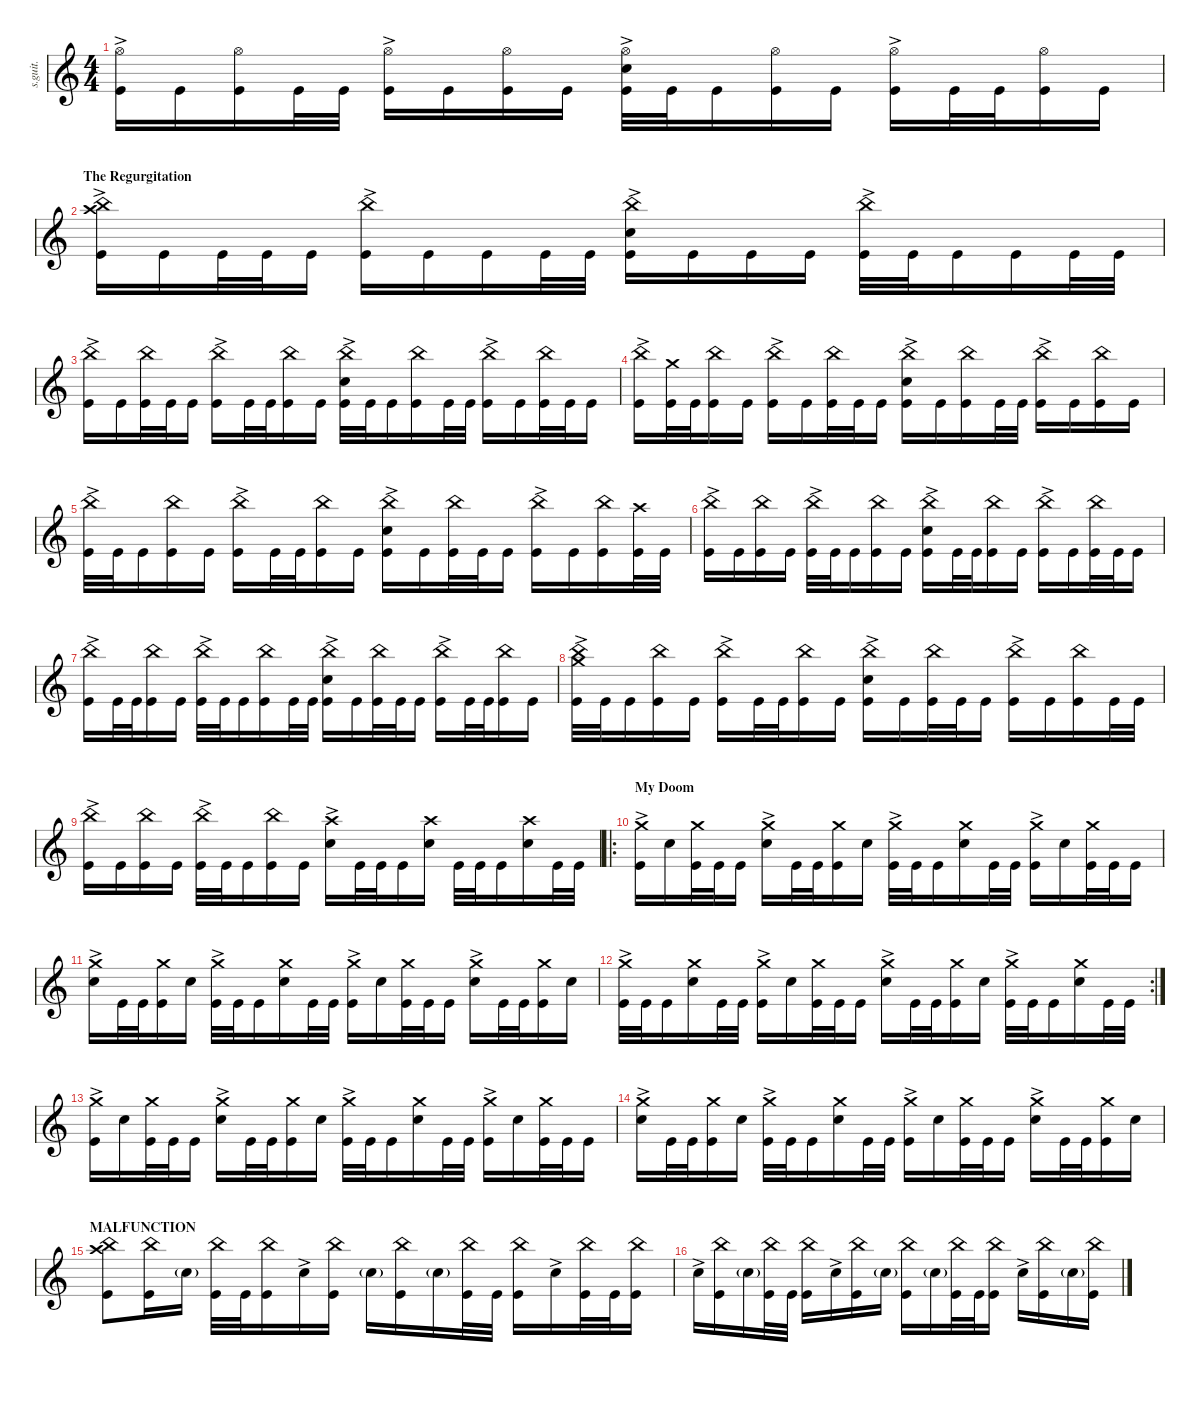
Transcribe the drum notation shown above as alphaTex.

\defaultSystemsLayout 4
\hideDynamics
\bracketExtendMode nobrackets
\track ("Tomas Haake (Drums)" "s.guit.") {instrument percussion}
\staff {score}
\articulation defaults
\ts (4 4)
\tempo (115 hide)
\clef g2
\ks c
("Hi-Hat (open)"{ac} "Kick (hit)").16{lyrics (0 "") lyrics (1 "") lyrics (2 "") lyrics (3 "") lyrics (4 "") dy f} "Kick (hit)".16{lyrics (0 "") lyrics (1 "") lyrics (2 "") lyrics (3 "") lyrics (4 "")} ("Hi-Hat (open)" "Kick (hit)").16{lyrics (0 "") lyrics (1 "") lyrics (2 "") lyrics (3 "") lyrics (4 "") dy mp} "Kick (hit)".32{lyrics (0 "") lyrics (1 "") lyrics (2 "") lyrics (3 "") lyrics (4 "") dy f} "Kick (hit)".32{lyrics (0 "") lyrics (1 "") lyrics (2 "") lyrics (3 "") lyrics (4 "") dy mf} ("Hi-Hat (open)"{ac} "Kick (hit)").16{lyrics (0 "") lyrics (1 "") lyrics (2 "") lyrics (3 "") lyrics (4 "") dy f} "Kick (hit)".16{lyrics (0 "") lyrics (1 "") lyrics (2 "") lyrics (3 "") lyrics (4 "")} ("Hi-Hat (open)" "Kick (hit)").16{lyrics (0 "") lyrics (1 "") lyrics (2 "") lyrics (3 "") lyrics (4 "") dy mp} "Kick (hit)".16{lyrics (0 "") lyrics (1 "") lyrics (2 "") lyrics (3 "") lyrics (4 "") dy f} ("Hi-Hat (open)"{ac} "Snare (hit) 2" "Kick (hit)").32{lyrics (0 "") lyrics (1 "") lyrics (2 "") lyrics (3 "") lyrics (4 "")} "Kick (hit)".32{lyrics (0 "") lyrics (1 "") lyrics (2 "") lyrics (3 "") lyrics (4 "") dy mf} "Kick (hit)".16{lyrics (0 "") lyrics (1 "") lyrics (2 "") lyrics (3 "") lyrics (4 "") dy f} ("Hi-Hat (open)" "Kick (hit)").16{lyrics (0 "") lyrics (1 "") lyrics (2 "") lyrics (3 "") lyrics (4 "") dy mp} "Kick (hit)".16{lyrics (0 "") lyrics (1 "") lyrics (2 "") lyrics (3 "") lyrics (4 "") dy f} ("Hi-Hat (open)"{ac} "Kick (hit)").16{lyrics (0 "") lyrics (1 "") lyrics (2 "") lyrics (3 "") lyrics (4 "")} "Kick (hit)".32{lyrics (0 "") lyrics (1 "") lyrics (2 "") lyrics (3 "") lyrics (4 "")} "Kick (hit)".32{lyrics (0 "") lyrics (1 "") lyrics (2 "") lyrics (3 "") lyrics (4 "") dy mf} ("Hi-Hat (open)" "Kick (hit)").16{lyrics (0 "") lyrics (1 "") lyrics (2 "") lyrics (3 "") lyrics (4 "") dy mp} "Kick (hit)".16{lyrics (0 "") lyrics (1 "") lyrics (2 "") lyrics (3 "") lyrics (4 "") dy f} |
\section ("" "The Regurgitation")
("China (hit)"{ac} "Crash high (hit)" "Kick (hit)").16{lyrics (0 "") lyrics (1 "") lyrics (2 "") lyrics (3 "") lyrics (4 "") dy mf} "Kick (hit)".16{lyrics (0 "") lyrics (1 "") lyrics (2 "") lyrics (3 "") lyrics (4 "")} "Kick (hit)".32{lyrics (0 "") lyrics (1 "") lyrics (2 "") lyrics (3 "") lyrics (4 "") dy f} "Kick (hit)".32{lyrics (0 "") lyrics (1 "") lyrics (2 "") lyrics (3 "") lyrics (4 "") dy mp} "Kick (hit)".16{lyrics (0 "") lyrics (1 "") lyrics (2 "") lyrics (3 "") lyrics (4 "") dy f} ("Kick (hit)" "China (hit)"{ac}).16{lyrics (0 "") lyrics (1 "") lyrics (2 "") lyrics (3 "") lyrics (4 "") dy mf} "Kick (hit)".16{lyrics (0 "") lyrics (1 "") lyrics (2 "") lyrics (3 "") lyrics (4 "") dy f} "Kick (hit)".16{lyrics (0 "") lyrics (1 "") lyrics (2 "") lyrics (3 "") lyrics (4 "")} "Kick (hit)".32{lyrics (0 "") lyrics (1 "") lyrics (2 "") lyrics (3 "") lyrics (4 "") dy mp} "Kick (hit)".32{lyrics (0 "") lyrics (1 "") lyrics (2 "") lyrics (3 "") lyrics (4 "") dy mf} ("Kick (hit)" "Snare (hit) 2" "China (hit)"{ac}).16{lyrics (0 "") lyrics (1 "") lyrics (2 "") lyrics (3 "") lyrics (4 "") dy f} "Kick (hit)".16{lyrics (0 "") lyrics (1 "") lyrics (2 "") lyrics (3 "") lyrics (4 "")} "Kick (hit)".16{lyrics (0 "") lyrics (1 "") lyrics (2 "") lyrics (3 "") lyrics (4 "")} "Kick (hit)".16{lyrics (0 "") lyrics (1 "") lyrics (2 "") lyrics (3 "") lyrics (4 "") dy mf} ("Kick (hit)" "China (hit)"{ac}).32{lyrics (0 "") lyrics (1 "") lyrics (2 "") lyrics (3 "") lyrics (4 "") dy mp} "Kick (hit)".32{lyrics (0 "") lyrics (1 "") lyrics (2 "") lyrics (3 "") lyrics (4 "") dy f} "Kick (hit)".16{lyrics (0 "") lyrics (1 "") lyrics (2 "") lyrics (3 "") lyrics (4 "")} "Kick (hit)".16{lyrics (0 "") lyrics (1 "") lyrics (2 "") lyrics (3 "") lyrics (4 "") dy mf} "Kick (hit)".32{lyrics (0 "") lyrics (1 "") lyrics (2 "") lyrics (3 "") lyrics (4 "") dy f} "Kick (hit)".32{lyrics (0 "") lyrics (1 "") lyrics (2 "") lyrics (3 "") lyrics (4 "") dy mp} |
("China (hit)"{ac} "Kick (hit)").16{lyrics (0 "") lyrics (1 "") lyrics (2 "") lyrics (3 "") lyrics (4 "") dy f} "Kick (hit)".16{lyrics (0 "") lyrics (1 "") lyrics (2 "") lyrics (3 "") lyrics (4 "")} ("China (hit)" "Kick (hit)").32{lyrics (0 "") lyrics (1 "") lyrics (2 "") lyrics (3 "") lyrics (4 "") dy mp} "Kick (hit)".32{lyrics (0 "") lyrics (1 "") lyrics (2 "") lyrics (3 "") lyrics (4 "") dy mf} "Kick (hit)".16{lyrics (0 "") lyrics (1 "") lyrics (2 "") lyrics (3 "") lyrics (4 "") dy f} ("China (hit)"{ac} "Kick (hit)").16{lyrics (0 "") lyrics (1 "") lyrics (2 "") lyrics (3 "") lyrics (4 "")} "Kick (hit)".32{lyrics (0 "") lyrics (1 "") lyrics (2 "") lyrics (3 "") lyrics (4 "")} "Kick (hit)".32{lyrics (0 "") lyrics (1 "") lyrics (2 "") lyrics (3 "") lyrics (4 "") dy mf} ("China (hit)" "Kick (hit)").16{lyrics (0 "") lyrics (1 "") lyrics (2 "") lyrics (3 "") lyrics (4 "") dy mp} "Kick (hit)".16{lyrics (0 "") lyrics (1 "") lyrics (2 "") lyrics (3 "") lyrics (4 "") dy f} ("China (hit)"{ac} "Snare (hit) 2" "Kick (hit)").32{lyrics (0 "") lyrics (1 "") lyrics (2 "") lyrics (3 "") lyrics (4 "")} "Kick (hit)".32{lyrics (0 "") lyrics (1 "") lyrics (2 "") lyrics (3 "") lyrics (4 "") dy mf} "Kick (hit)".16{lyrics (0 "") lyrics (1 "") lyrics (2 "") lyrics (3 "") lyrics (4 "") dy f} ("China (hit)" "Kick (hit)").16{lyrics (0 "") lyrics (1 "") lyrics (2 "") lyrics (3 "") lyrics (4 "") dy mp} "Kick (hit)".32{lyrics (0 "") lyrics (1 "") lyrics (2 "") lyrics (3 "") lyrics (4 "") dy f} "Kick (hit)".32{lyrics (0 "") lyrics (1 "") lyrics (2 "") lyrics (3 "") lyrics (4 "") dy mf} ("China (hit)"{ac} "Kick (hit)").16{lyrics (0 "") lyrics (1 "") lyrics (2 "") lyrics (3 "") lyrics (4 "") dy f} "Kick (hit)".16{lyrics (0 "") lyrics (1 "") lyrics (2 "") lyrics (3 "") lyrics (4 "")} ("China (hit)" "Kick (hit)").32{lyrics (0 "") lyrics (1 "") lyrics (2 "") lyrics (3 "") lyrics (4 "") dy mp} "Kick (hit)".32{lyrics (0 "") lyrics (1 "") lyrics (2 "") lyrics (3 "") lyrics (4 "") dy mf} "Kick (hit)".16{lyrics (0 "") lyrics (1 "") lyrics (2 "") lyrics (3 "") lyrics (4 "") dy f} |
("China (hit)"{ac} "Kick (hit)").16{lyrics (0 "") lyrics (1 "") lyrics (2 "") lyrics (3 "") lyrics (4 "")} ("Crash medium (hit)" "Kick (hit)").32{lyrics (0 "") lyrics (1 "") lyrics (2 "") lyrics (3 "") lyrics (4 "") dy mf} "Kick (hit)".32{lyrics (0 "") lyrics (1 "") lyrics (2 "") lyrics (3 "") lyrics (4 "")} ("China (hit)" "Kick (hit)").16{lyrics (0 "") lyrics (1 "") lyrics (2 "") lyrics (3 "") lyrics (4 "") dy mp} "Kick (hit)".16{lyrics (0 "") lyrics (1 "") lyrics (2 "") lyrics (3 "") lyrics (4 "") dy f} ("China (hit)"{ac} "Kick (hit)").16{lyrics (0 "") lyrics (1 "") lyrics (2 "") lyrics (3 "") lyrics (4 "")} "Kick (hit)".16{lyrics (0 "") lyrics (1 "") lyrics (2 "") lyrics (3 "") lyrics (4 "")} ("China (hit)" "Kick (hit)").32{lyrics (0 "") lyrics (1 "") lyrics (2 "") lyrics (3 "") lyrics (4 "") dy mp} "Kick (hit)".32{lyrics (0 "") lyrics (1 "") lyrics (2 "") lyrics (3 "") lyrics (4 "") dy mf} "Kick (hit)".16{lyrics (0 "") lyrics (1 "") lyrics (2 "") lyrics (3 "") lyrics (4 "") dy f} ("China (hit)"{ac} "Snare (hit) 2" "Kick (hit)").16{lyrics (0 "") lyrics (1 "") lyrics (2 "") lyrics (3 "") lyrics (4 "")} "Kick (hit)".16{lyrics (0 "") lyrics (1 "") lyrics (2 "") lyrics (3 "") lyrics (4 "")} ("China (hit)" "Kick (hit)").16{lyrics (0 "") lyrics (1 "") lyrics (2 "") lyrics (3 "") lyrics (4 "") dy mp} "Kick (hit)".32{lyrics (0 "") lyrics (1 "") lyrics (2 "") lyrics (3 "") lyrics (4 "") dy f} "Kick (hit)".32{lyrics (0 "") lyrics (1 "") lyrics (2 "") lyrics (3 "") lyrics (4 "") dy mf} ("China (hit)"{ac} "Kick (hit)").16{lyrics (0 "") lyrics (1 "") lyrics (2 "") lyrics (3 "") lyrics (4 "") dy f} "Kick (hit)".16{lyrics (0 "") lyrics (1 "") lyrics (2 "") lyrics (3 "") lyrics (4 "")} ("China (hit)" "Kick (hit)").16{lyrics (0 "") lyrics (1 "") lyrics (2 "") lyrics (3 "") lyrics (4 "") dy mp} "Kick (hit)".16{lyrics (0 "") lyrics (1 "") lyrics (2 "") lyrics (3 "") lyrics (4 "") dy f} |
("China (hit)"{ac} "Kick (hit)").32{lyrics (0 "") lyrics (1 "") lyrics (2 "") lyrics (3 "") lyrics (4 "")} "Kick (hit)".32{lyrics (0 "") lyrics (1 "") lyrics (2 "") lyrics (3 "") lyrics (4 "") dy mf} "Kick (hit)".16{lyrics (0 "") lyrics (1 "") lyrics (2 "") lyrics (3 "") lyrics (4 "") dy f} ("China (hit)" "Kick (hit)").16{lyrics (0 "") lyrics (1 "") lyrics (2 "") lyrics (3 "") lyrics (4 "") dy mp} "Kick (hit)".16{lyrics (0 "") lyrics (1 "") lyrics (2 "") lyrics (3 "") lyrics (4 "") dy f} ("China (hit)"{ac} "Kick (hit)").16{lyrics (0 "") lyrics (1 "") lyrics (2 "") lyrics (3 "") lyrics (4 "")} "Kick (hit)".32{lyrics (0 "") lyrics (1 "") lyrics (2 "") lyrics (3 "") lyrics (4 "")} "Kick (hit)".32{lyrics (0 "") lyrics (1 "") lyrics (2 "") lyrics (3 "") lyrics (4 "") dy mf} ("China (hit)" "Kick (hit)").16{lyrics (0 "") lyrics (1 "") lyrics (2 "") lyrics (3 "") lyrics (4 "") dy mp} "Kick (hit)".16{lyrics (0 "") lyrics (1 "") lyrics (2 "") lyrics (3 "") lyrics (4 "") dy f} ("China (hit)"{ac} "Snare (hit) 2" "Kick (hit)").16{lyrics (0 "") lyrics (1 "") lyrics (2 "") lyrics (3 "") lyrics (4 "")} "Kick (hit)".16{lyrics (0 "") lyrics (1 "") lyrics (2 "") lyrics (3 "") lyrics (4 "")} ("China (hit)" "Kick (hit)").32{lyrics (0 "") lyrics (1 "") lyrics (2 "") lyrics (3 "") lyrics (4 "") dy mp} "Kick (hit)".32{lyrics (0 "") lyrics (1 "") lyrics (2 "") lyrics (3 "") lyrics (4 "") dy mf} "Kick (hit)".16{lyrics (0 "") lyrics (1 "") lyrics (2 "") lyrics (3 "") lyrics (4 "") dy f} ("China (hit)"{ac} "Kick (hit)").16{lyrics (0 "") lyrics (1 "") lyrics (2 "") lyrics (3 "") lyrics (4 "")} "Kick (hit)".16{lyrics (0 "") lyrics (1 "") lyrics (2 "") lyrics (3 "") lyrics (4 "")} ("China (hit)" "Kick (hit)").16{lyrics (0 "") lyrics (1 "") lyrics (2 "") lyrics (3 "") lyrics (4 "") dy mp} ("Crash high (hit)" "Kick (hit)").32{lyrics (0 "") lyrics (1 "") lyrics (2 "") lyrics (3 "") lyrics (4 "") dy mf} "Kick (hit)".32{lyrics (0 "") lyrics (1 "") lyrics (2 "") lyrics (3 "") lyrics (4 "")} |
("China (hit)"{ac} "Kick (hit)").16{lyrics (0 "") lyrics (1 "") lyrics (2 "") lyrics (3 "") lyrics (4 "") dy f} "Kick (hit)".16{lyrics (0 "") lyrics (1 "") lyrics (2 "") lyrics (3 "") lyrics (4 "")} ("China (hit)" "Kick (hit)").16{lyrics (0 "") lyrics (1 "") lyrics (2 "") lyrics (3 "") lyrics (4 "") dy mp} "Kick (hit)".16{lyrics (0 "") lyrics (1 "") lyrics (2 "") lyrics (3 "") lyrics (4 "") dy f} ("China (hit)"{ac} "Kick (hit)").32{lyrics (0 "") lyrics (1 "") lyrics (2 "") lyrics (3 "") lyrics (4 "")} "Kick (hit)".32{lyrics (0 "") lyrics (1 "") lyrics (2 "") lyrics (3 "") lyrics (4 "") dy mf} "Kick (hit)".16{lyrics (0 "") lyrics (1 "") lyrics (2 "") lyrics (3 "") lyrics (4 "") dy f} ("China (hit)" "Kick (hit)").16{lyrics (0 "") lyrics (1 "") lyrics (2 "") lyrics (3 "") lyrics (4 "") dy mp} "Kick (hit)".16{lyrics (0 "") lyrics (1 "") lyrics (2 "") lyrics (3 "") lyrics (4 "") dy f} ("China (hit)"{ac} "Snare (hit) 2" "Kick (hit)").16{lyrics (0 "") lyrics (1 "") lyrics (2 "") lyrics (3 "") lyrics (4 "")} "Kick (hit)".32{lyrics (0 "") lyrics (1 "") lyrics (2 "") lyrics (3 "") lyrics (4 "")} "Kick (hit)".32{lyrics (0 "") lyrics (1 "") lyrics (2 "") lyrics (3 "") lyrics (4 "") dy mf} ("China (hit)" "Kick (hit)").16{lyrics (0 "") lyrics (1 "") lyrics (2 "") lyrics (3 "") lyrics (4 "") dy mp} "Kick (hit)".16{lyrics (0 "") lyrics (1 "") lyrics (2 "") lyrics (3 "") lyrics (4 "") dy f} ("China (hit)"{ac} "Kick (hit)").16{lyrics (0 "") lyrics (1 "") lyrics (2 "") lyrics (3 "") lyrics (4 "")} "Kick (hit)".16{lyrics (0 "") lyrics (1 "") lyrics (2 "") lyrics (3 "") lyrics (4 "")} ("China (hit)" "Kick (hit)").32{lyrics (0 "") lyrics (1 "") lyrics (2 "") lyrics (3 "") lyrics (4 "") dy mp} "Kick (hit)".32{lyrics (0 "") lyrics (1 "") lyrics (2 "") lyrics (3 "") lyrics (4 "") dy mf} "Kick (hit)".16{lyrics (0 "") lyrics (1 "") lyrics (2 "") lyrics (3 "") lyrics (4 "") dy f} |
("China (hit)"{ac} "Kick (hit)").16{lyrics (0 "") lyrics (1 "") lyrics (2 "") lyrics (3 "") lyrics (4 "")} "Kick (hit)".32{lyrics (0 "") lyrics (1 "") lyrics (2 "") lyrics (3 "") lyrics (4 "")} "Kick (hit)".32{lyrics (0 "") lyrics (1 "") lyrics (2 "") lyrics (3 "") lyrics (4 "")} ("China (hit)" "Kick (hit)").16{lyrics (0 "") lyrics (1 "") lyrics (2 "") lyrics (3 "") lyrics (4 "") dy mp} "Kick (hit)".16{lyrics (0 "") lyrics (1 "") lyrics (2 "") lyrics (3 "") lyrics (4 "") dy f} ("China (hit)"{ac} "Kick (hit)").32{lyrics (0 "") lyrics (1 "") lyrics (2 "") lyrics (3 "") lyrics (4 "")} "Kick (hit)".32{lyrics (0 "") lyrics (1 "") lyrics (2 "") lyrics (3 "") lyrics (4 "")} "Kick (hit)".16{lyrics (0 "") lyrics (1 "") lyrics (2 "") lyrics (3 "") lyrics (4 "")} ("China (hit)" "Kick (hit)").16{lyrics (0 "") lyrics (1 "") lyrics (2 "") lyrics (3 "") lyrics (4 "") dy mp} "Kick (hit)".32{lyrics (0 "") lyrics (1 "") lyrics (2 "") lyrics (3 "") lyrics (4 "") dy f} "Kick (hit)".32{lyrics (0 "") lyrics (1 "") lyrics (2 "") lyrics (3 "") lyrics (4 "")} ("China (hit)"{ac} "Snare (hit) 2" "Kick (hit)").16{lyrics (0 "") lyrics (1 "") lyrics (2 "") lyrics (3 "") lyrics (4 "")} "Kick (hit)".16{lyrics (0 "") lyrics (1 "") lyrics (2 "") lyrics (3 "") lyrics (4 "")} ("China (hit)" "Kick (hit)").32{lyrics (0 "") lyrics (1 "") lyrics (2 "") lyrics (3 "") lyrics (4 "") dy mp} "Kick (hit)".32{lyrics (0 "") lyrics (1 "") lyrics (2 "") lyrics (3 "") lyrics (4 "") dy f} "Kick (hit)".16{lyrics (0 "") lyrics (1 "") lyrics (2 "") lyrics (3 "") lyrics (4 "")} ("China (hit)"{ac} "Kick (hit)").16{lyrics (0 "") lyrics (1 "") lyrics (2 "") lyrics (3 "") lyrics (4 "")} "Kick (hit)".32{lyrics (0 "") lyrics (1 "") lyrics (2 "") lyrics (3 "") lyrics (4 "")} "Kick (hit)".32{lyrics (0 "") lyrics (1 "") lyrics (2 "") lyrics (3 "") lyrics (4 "")} ("China (hit)" "Kick (hit)").16{lyrics (0 "") lyrics (1 "") lyrics (2 "") lyrics (3 "") lyrics (4 "") dy mp} "Kick (hit)".16{lyrics (0 "") lyrics (1 "") lyrics (2 "") lyrics (3 "") lyrics (4 "") dy f} |
("China (hit)"{ac} "Crash medium (hit)" "Kick (hit)").32{lyrics (0 "") lyrics (1 "") lyrics (2 "") lyrics (3 "") lyrics (4 "")} "Kick (hit)".32{lyrics (0 "") lyrics (1 "") lyrics (2 "") lyrics (3 "") lyrics (4 "") dy mf} "Kick (hit)".16{lyrics (0 "") lyrics (1 "") lyrics (2 "") lyrics (3 "") lyrics (4 "") dy f} ("China (hit)" "Kick (hit)").16{lyrics (0 "") lyrics (1 "") lyrics (2 "") lyrics (3 "") lyrics (4 "") dy mp} "Kick (hit)".16{lyrics (0 "") lyrics (1 "") lyrics (2 "") lyrics (3 "") lyrics (4 "") dy f} ("China (hit)"{ac} "Kick (hit)").16{lyrics (0 "") lyrics (1 "") lyrics (2 "") lyrics (3 "") lyrics (4 "")} "Kick (hit)".32{lyrics (0 "") lyrics (1 "") lyrics (2 "") lyrics (3 "") lyrics (4 "")} "Kick (hit)".32{lyrics (0 "") lyrics (1 "") lyrics (2 "") lyrics (3 "") lyrics (4 "") dy mf} ("China (hit)" "Kick (hit)").16{lyrics (0 "") lyrics (1 "") lyrics (2 "") lyrics (3 "") lyrics (4 "") dy mp} "Kick (hit)".16{lyrics (0 "") lyrics (1 "") lyrics (2 "") lyrics (3 "") lyrics (4 "") dy f} ("China (hit)"{ac} "Snare (hit) 2" "Kick (hit)").16{lyrics (0 "") lyrics (1 "") lyrics (2 "") lyrics (3 "") lyrics (4 "")} "Kick (hit)".16{lyrics (0 "") lyrics (1 "") lyrics (2 "") lyrics (3 "") lyrics (4 "")} ("China (hit)" "Kick (hit)").32{lyrics (0 "") lyrics (1 "") lyrics (2 "") lyrics (3 "") lyrics (4 "") dy mp} "Kick (hit)".32{lyrics (0 "") lyrics (1 "") lyrics (2 "") lyrics (3 "") lyrics (4 "") dy mf} "Kick (hit)".16{lyrics (0 "") lyrics (1 "") lyrics (2 "") lyrics (3 "") lyrics (4 "") dy f} ("China (hit)"{ac} "Kick (hit)").16{lyrics (0 "") lyrics (1 "") lyrics (2 "") lyrics (3 "") lyrics (4 "")} "Kick (hit)".16{lyrics (0 "") lyrics (1 "") lyrics (2 "") lyrics (3 "") lyrics (4 "")} ("China (hit)" "Kick (hit)").16{lyrics (0 "") lyrics (1 "") lyrics (2 "") lyrics (3 "") lyrics (4 "") dy mp} "Kick (hit)".32{lyrics (0 "") lyrics (1 "") lyrics (2 "") lyrics (3 "") lyrics (4 "") dy f} "Kick (hit)".32{lyrics (0 "") lyrics (1 "") lyrics (2 "") lyrics (3 "") lyrics (4 "") dy mf} |
("China (hit)"{ac} "Kick (hit)").16{lyrics (0 "") lyrics (1 "") lyrics (2 "") lyrics (3 "") lyrics (4 "") dy f} "Kick (hit)".16{lyrics (0 "") lyrics (1 "") lyrics (2 "") lyrics (3 "") lyrics (4 "")} ("China (hit)" "Kick (hit)").16{lyrics (0 "") lyrics (1 "") lyrics (2 "") lyrics (3 "") lyrics (4 "") dy mp} "Kick (hit)".16{lyrics (0 "") lyrics (1 "") lyrics (2 "") lyrics (3 "") lyrics (4 "") dy f} ("China (hit)"{ac} "Kick (hit)").32{lyrics (0 "") lyrics (1 "") lyrics (2 "") lyrics (3 "") lyrics (4 "")} "Kick (hit)".32{lyrics (0 "") lyrics (1 "") lyrics (2 "") lyrics (3 "") lyrics (4 "") dy mf} "Kick (hit)".16{lyrics (0 "") lyrics (1 "") lyrics (2 "") lyrics (3 "") lyrics (4 "") dy f} ("China (hit)" "Kick (hit)").16{lyrics (0 "") lyrics (1 "") lyrics (2 "") lyrics (3 "") lyrics (4 "") dy mp} "Kick (hit)".16{lyrics (0 "") lyrics (1 "") lyrics (2 "") lyrics (3 "") lyrics (4 "") dy f} ("Crash high (hit)"{ac} "Snare (hit) 2").16{lyrics (0 "") lyrics (1 "") lyrics (2 "") lyrics (3 "") lyrics (4 "")} "Kick (hit)".32{lyrics (0 "") lyrics (1 "") lyrics (2 "") lyrics (3 "") lyrics (4 "")} "Kick (hit)".32{lyrics (0 "") lyrics (1 "") lyrics (2 "") lyrics (3 "") lyrics (4 "") dy mf} "Kick (hit)".16{lyrics (0 "") lyrics (1 "") lyrics (2 "") lyrics (3 "") lyrics (4 "") dy f} ("Crash high (hit)" "Snare (hit) 2").16{lyrics (0 "") lyrics (1 "") lyrics (2 "") lyrics (3 "") lyrics (4 "")} "Kick (hit)".32{lyrics (0 "") lyrics (1 "") lyrics (2 "") lyrics (3 "") lyrics (4 "")} "Kick (hit)".32{lyrics (0 "") lyrics (1 "") lyrics (2 "") lyrics (3 "") lyrics (4 "") dy mf} "Kick (hit)".16{lyrics (0 "") lyrics (1 "") lyrics (2 "") lyrics (3 "") lyrics (4 "") dy f} ("Crash high (hit)" "Snare (hit) 2").16{lyrics (0 "") lyrics (1 "") lyrics (2 "") lyrics (3 "") lyrics (4 "")} "Kick (hit)".32{lyrics (0 "") lyrics (1 "") lyrics (2 "") lyrics (3 "") lyrics (4 "")} "Kick (hit)".32{lyrics (0 "") lyrics (1 "") lyrics (2 "") lyrics (3 "") lyrics (4 "") dy mf} |
\ro
\section ("" "My Doom")
("Crash medium (hit)"{ac} "Kick (hit)").16{lyrics (0 "") lyrics (1 "") lyrics (2 "") lyrics (3 "") lyrics (4 "") dy f} "Snare (hit) 2".16{lyrics (0 "") lyrics (1 "") lyrics (2 "") lyrics (3 "") lyrics (4 "")} ("Crash medium (hit)" "Kick (hit)").32{lyrics (0 "") lyrics (1 "") lyrics (2 "") lyrics (3 "") lyrics (4 "") dy mp} "Kick (hit)".32{lyrics (0 "") lyrics (1 "") lyrics (2 "") lyrics (3 "") lyrics (4 "") dy mf} "Kick (hit)".16{lyrics (0 "") lyrics (1 "") lyrics (2 "") lyrics (3 "") lyrics (4 "") dy f} ("Crash medium (hit)"{ac} "Snare (hit) 2").16{lyrics (0 "") lyrics (1 "") lyrics (2 "") lyrics (3 "") lyrics (4 "")} "Kick (hit)".32{lyrics (0 "") lyrics (1 "") lyrics (2 "") lyrics (3 "") lyrics (4 "")} "Kick (hit)".32{lyrics (0 "") lyrics (1 "") lyrics (2 "") lyrics (3 "") lyrics (4 "") dy mf} ("Crash medium (hit)" "Kick (hit)").16{lyrics (0 "") lyrics (1 "") lyrics (2 "") lyrics (3 "") lyrics (4 "") dy mp} "Snare (hit) 2".16{lyrics (0 "") lyrics (1 "") lyrics (2 "") lyrics (3 "") lyrics (4 "") dy f} ("Crash medium (hit)"{ac} "Kick (hit)").32{lyrics (0 "") lyrics (1 "") lyrics (2 "") lyrics (3 "") lyrics (4 "")} "Kick (hit)".32{lyrics (0 "") lyrics (1 "") lyrics (2 "") lyrics (3 "") lyrics (4 "") dy mf} "Kick (hit)".16{lyrics (0 "") lyrics (1 "") lyrics (2 "") lyrics (3 "") lyrics (4 "") dy f} ("Crash medium (hit)" "Snare (hit) 2").16{lyrics (0 "") lyrics (1 "") lyrics (2 "") lyrics (3 "") lyrics (4 "") dy mp} "Kick (hit)".32{lyrics (0 "") lyrics (1 "") lyrics (2 "") lyrics (3 "") lyrics (4 "") dy f} "Kick (hit)".32{lyrics (0 "") lyrics (1 "") lyrics (2 "") lyrics (3 "") lyrics (4 "") dy mf} ("Crash medium (hit)"{ac} "Kick (hit)").16{lyrics (0 "") lyrics (1 "") lyrics (2 "") lyrics (3 "") lyrics (4 "") dy f} "Snare (hit) 2".16{lyrics (0 "") lyrics (1 "") lyrics (2 "") lyrics (3 "") lyrics (4 "")} ("Crash medium (hit)" "Kick (hit)").32{lyrics (0 "") lyrics (1 "") lyrics (2 "") lyrics (3 "") lyrics (4 "") dy mp} "Kick (hit)".32{lyrics (0 "") lyrics (1 "") lyrics (2 "") lyrics (3 "") lyrics (4 "") dy mf} "Kick (hit)".16{lyrics (0 "") lyrics (1 "") lyrics (2 "") lyrics (3 "") lyrics (4 "") dy f} |
("Crash medium (hit)"{ac} "Snare (hit) 2").16{lyrics (0 "") lyrics (1 "") lyrics (2 "") lyrics (3 "") lyrics (4 "")} "Kick (hit)".32{lyrics (0 "") lyrics (1 "") lyrics (2 "") lyrics (3 "") lyrics (4 "")} "Kick (hit)".32{lyrics (0 "") lyrics (1 "") lyrics (2 "") lyrics (3 "") lyrics (4 "") dy mf} ("Crash medium (hit)" "Kick (hit)").16{lyrics (0 "") lyrics (1 "") lyrics (2 "") lyrics (3 "") lyrics (4 "") dy mp} "Snare (hit) 2".16{lyrics (0 "") lyrics (1 "") lyrics (2 "") lyrics (3 "") lyrics (4 "") dy f} ("Crash medium (hit)"{ac} "Kick (hit)").32{lyrics (0 "") lyrics (1 "") lyrics (2 "") lyrics (3 "") lyrics (4 "")} "Kick (hit)".32{lyrics (0 "") lyrics (1 "") lyrics (2 "") lyrics (3 "") lyrics (4 "") dy mf} "Kick (hit)".16{lyrics (0 "") lyrics (1 "") lyrics (2 "") lyrics (3 "") lyrics (4 "") dy f} ("Crash medium (hit)" "Snare (hit) 2").16{lyrics (0 "") lyrics (1 "") lyrics (2 "") lyrics (3 "") lyrics (4 "") dy mp} "Kick (hit)".32{lyrics (0 "") lyrics (1 "") lyrics (2 "") lyrics (3 "") lyrics (4 "") dy f} "Kick (hit)".32{lyrics (0 "") lyrics (1 "") lyrics (2 "") lyrics (3 "") lyrics (4 "") dy mf} ("Crash medium (hit)"{ac} "Kick (hit)").16{lyrics (0 "") lyrics (1 "") lyrics (2 "") lyrics (3 "") lyrics (4 "") dy f} "Snare (hit) 2".16{lyrics (0 "") lyrics (1 "") lyrics (2 "") lyrics (3 "") lyrics (4 "")} ("Crash medium (hit)" "Kick (hit)").32{lyrics (0 "") lyrics (1 "") lyrics (2 "") lyrics (3 "") lyrics (4 "") dy mp} "Kick (hit)".32{lyrics (0 "") lyrics (1 "") lyrics (2 "") lyrics (3 "") lyrics (4 "") dy mf} "Kick (hit)".16{lyrics (0 "") lyrics (1 "") lyrics (2 "") lyrics (3 "") lyrics (4 "") dy f} ("Crash medium (hit)"{ac} "Snare (hit) 2").16{lyrics (0 "") lyrics (1 "") lyrics (2 "") lyrics (3 "") lyrics (4 "")} "Kick (hit)".32{lyrics (0 "") lyrics (1 "") lyrics (2 "") lyrics (3 "") lyrics (4 "")} "Kick (hit)".32{lyrics (0 "") lyrics (1 "") lyrics (2 "") lyrics (3 "") lyrics (4 "") dy mf} ("Crash medium (hit)" "Kick (hit)").16{lyrics (0 "") lyrics (1 "") lyrics (2 "") lyrics (3 "") lyrics (4 "") dy mp} "Snare (hit) 2".16{lyrics (0 "") lyrics (1 "") lyrics (2 "") lyrics (3 "") lyrics (4 "") dy f} |
\rc 2
("Crash medium (hit)"{ac} "Kick (hit)").32{lyrics (0 "") lyrics (1 "") lyrics (2 "") lyrics (3 "") lyrics (4 "")} "Kick (hit)".32{lyrics (0 "") lyrics (1 "") lyrics (2 "") lyrics (3 "") lyrics (4 "") dy mf} "Kick (hit)".16{lyrics (0 "") lyrics (1 "") lyrics (2 "") lyrics (3 "") lyrics (4 "") dy f} ("Crash medium (hit)" "Snare (hit) 2").16{lyrics (0 "") lyrics (1 "") lyrics (2 "") lyrics (3 "") lyrics (4 "") dy mp} "Kick (hit)".32{lyrics (0 "") lyrics (1 "") lyrics (2 "") lyrics (3 "") lyrics (4 "") dy f} "Kick (hit)".32{lyrics (0 "") lyrics (1 "") lyrics (2 "") lyrics (3 "") lyrics (4 "") dy mf} ("Crash medium (hit)"{ac} "Kick (hit)").16{lyrics (0 "") lyrics (1 "") lyrics (2 "") lyrics (3 "") lyrics (4 "") dy f} "Snare (hit) 2".16{lyrics (0 "") lyrics (1 "") lyrics (2 "") lyrics (3 "") lyrics (4 "")} ("Crash medium (hit)" "Kick (hit)").32{lyrics (0 "") lyrics (1 "") lyrics (2 "") lyrics (3 "") lyrics (4 "") dy mp} "Kick (hit)".32{lyrics (0 "") lyrics (1 "") lyrics (2 "") lyrics (3 "") lyrics (4 "") dy mf} "Kick (hit)".16{lyrics (0 "") lyrics (1 "") lyrics (2 "") lyrics (3 "") lyrics (4 "") dy f} ("Crash medium (hit)"{ac} "Snare (hit) 2").16{lyrics (0 "") lyrics (1 "") lyrics (2 "") lyrics (3 "") lyrics (4 "")} "Kick (hit)".32{lyrics (0 "") lyrics (1 "") lyrics (2 "") lyrics (3 "") lyrics (4 "")} "Kick (hit)".32{lyrics (0 "") lyrics (1 "") lyrics (2 "") lyrics (3 "") lyrics (4 "") dy mf} ("Crash medium (hit)" "Kick (hit)").16{lyrics (0 "") lyrics (1 "") lyrics (2 "") lyrics (3 "") lyrics (4 "") dy mp} "Snare (hit) 2".16{lyrics (0 "") lyrics (1 "") lyrics (2 "") lyrics (3 "") lyrics (4 "") dy f} ("Crash medium (hit)"{ac} "Kick (hit)").32{lyrics (0 "") lyrics (1 "") lyrics (2 "") lyrics (3 "") lyrics (4 "")} "Kick (hit)".32{lyrics (0 "") lyrics (1 "") lyrics (2 "") lyrics (3 "") lyrics (4 "") dy mf} "Kick (hit)".16{lyrics (0 "") lyrics (1 "") lyrics (2 "") lyrics (3 "") lyrics (4 "") dy f} ("Crash medium (hit)" "Snare (hit) 2").16{lyrics (0 "") lyrics (1 "") lyrics (2 "") lyrics (3 "") lyrics (4 "") dy mp} "Kick (hit)".32{lyrics (0 "") lyrics (1 "") lyrics (2 "") lyrics (3 "") lyrics (4 "") dy f} "Kick (hit)".32{lyrics (0 "") lyrics (1 "") lyrics (2 "") lyrics (3 "") lyrics (4 "") dy mf} |
("Crash medium (hit)"{ac} "Kick (hit)").16{lyrics (0 "") lyrics (1 "") lyrics (2 "") lyrics (3 "") lyrics (4 "") dy f} "Snare (hit) 2".16{lyrics (0 "") lyrics (1 "") lyrics (2 "") lyrics (3 "") lyrics (4 "")} ("Crash medium (hit)" "Kick (hit)").32{lyrics (0 "") lyrics (1 "") lyrics (2 "") lyrics (3 "") lyrics (4 "") dy mp} "Kick (hit)".32{lyrics (0 "") lyrics (1 "") lyrics (2 "") lyrics (3 "") lyrics (4 "") dy mf} "Kick (hit)".16{lyrics (0 "") lyrics (1 "") lyrics (2 "") lyrics (3 "") lyrics (4 "") dy f} ("Crash medium (hit)"{ac} "Snare (hit) 2").16{lyrics (0 "") lyrics (1 "") lyrics (2 "") lyrics (3 "") lyrics (4 "")} "Kick (hit)".32{lyrics (0 "") lyrics (1 "") lyrics (2 "") lyrics (3 "") lyrics (4 "")} "Kick (hit)".32{lyrics (0 "") lyrics (1 "") lyrics (2 "") lyrics (3 "") lyrics (4 "") dy mf} ("Crash medium (hit)" "Kick (hit)").16{lyrics (0 "") lyrics (1 "") lyrics (2 "") lyrics (3 "") lyrics (4 "") dy mp} "Snare (hit) 2".16{lyrics (0 "") lyrics (1 "") lyrics (2 "") lyrics (3 "") lyrics (4 "") dy f} ("Crash medium (hit)"{ac} "Kick (hit)").32{lyrics (0 "") lyrics (1 "") lyrics (2 "") lyrics (3 "") lyrics (4 "")} "Kick (hit)".32{lyrics (0 "") lyrics (1 "") lyrics (2 "") lyrics (3 "") lyrics (4 "") dy mf} "Kick (hit)".16{lyrics (0 "") lyrics (1 "") lyrics (2 "") lyrics (3 "") lyrics (4 "") dy f} ("Crash medium (hit)" "Snare (hit) 2").16{lyrics (0 "") lyrics (1 "") lyrics (2 "") lyrics (3 "") lyrics (4 "") dy mp} "Kick (hit)".32{lyrics (0 "") lyrics (1 "") lyrics (2 "") lyrics (3 "") lyrics (4 "") dy f} "Kick (hit)".32{lyrics (0 "") lyrics (1 "") lyrics (2 "") lyrics (3 "") lyrics (4 "") dy mf} ("Crash medium (hit)"{ac} "Kick (hit)").16{lyrics (0 "") lyrics (1 "") lyrics (2 "") lyrics (3 "") lyrics (4 "") dy f} "Snare (hit) 2".16{lyrics (0 "") lyrics (1 "") lyrics (2 "") lyrics (3 "") lyrics (4 "")} ("Crash medium (hit)" "Kick (hit)").32{lyrics (0 "") lyrics (1 "") lyrics (2 "") lyrics (3 "") lyrics (4 "") dy mp} "Kick (hit)".32{lyrics (0 "") lyrics (1 "") lyrics (2 "") lyrics (3 "") lyrics (4 "") dy mf} "Kick (hit)".16{lyrics (0 "") lyrics (1 "") lyrics (2 "") lyrics (3 "") lyrics (4 "") dy f} |
("Crash medium (hit)"{ac} "Snare (hit) 2").16{lyrics (0 "") lyrics (1 "") lyrics (2 "") lyrics (3 "") lyrics (4 "")} "Kick (hit)".32{lyrics (0 "") lyrics (1 "") lyrics (2 "") lyrics (3 "") lyrics (4 "")} "Kick (hit)".32{lyrics (0 "") lyrics (1 "") lyrics (2 "") lyrics (3 "") lyrics (4 "") dy mf} ("Crash medium (hit)" "Kick (hit)").16{lyrics (0 "") lyrics (1 "") lyrics (2 "") lyrics (3 "") lyrics (4 "") dy mp} "Snare (hit) 2".16{lyrics (0 "") lyrics (1 "") lyrics (2 "") lyrics (3 "") lyrics (4 "") dy f} ("Crash medium (hit)"{ac} "Kick (hit)").32{lyrics (0 "") lyrics (1 "") lyrics (2 "") lyrics (3 "") lyrics (4 "")} "Kick (hit)".32{lyrics (0 "") lyrics (1 "") lyrics (2 "") lyrics (3 "") lyrics (4 "") dy mf} "Kick (hit)".16{lyrics (0 "") lyrics (1 "") lyrics (2 "") lyrics (3 "") lyrics (4 "") dy f} ("Crash medium (hit)" "Snare (hit) 2").16{lyrics (0 "") lyrics (1 "") lyrics (2 "") lyrics (3 "") lyrics (4 "") dy mp} "Kick (hit)".32{lyrics (0 "") lyrics (1 "") lyrics (2 "") lyrics (3 "") lyrics (4 "") dy f} "Kick (hit)".32{lyrics (0 "") lyrics (1 "") lyrics (2 "") lyrics (3 "") lyrics (4 "") dy mf} ("Crash medium (hit)"{ac} "Kick (hit)").16{lyrics (0 "") lyrics (1 "") lyrics (2 "") lyrics (3 "") lyrics (4 "") dy f} "Snare (hit) 2".16{lyrics (0 "") lyrics (1 "") lyrics (2 "") lyrics (3 "") lyrics (4 "")} ("Crash medium (hit)" "Kick (hit)").32{lyrics (0 "") lyrics (1 "") lyrics (2 "") lyrics (3 "") lyrics (4 "") dy mp} "Kick (hit)".32{lyrics (0 "") lyrics (1 "") lyrics (2 "") lyrics (3 "") lyrics (4 "") dy mf} "Kick (hit)".16{lyrics (0 "") lyrics (1 "") lyrics (2 "") lyrics (3 "") lyrics (4 "") dy f} ("Crash medium (hit)"{ac} "Snare (hit) 2").16{lyrics (0 "") lyrics (1 "") lyrics (2 "") lyrics (3 "") lyrics (4 "")} "Kick (hit)".32{lyrics (0 "") lyrics (1 "") lyrics (2 "") lyrics (3 "") lyrics (4 "")} "Kick (hit)".32{lyrics (0 "") lyrics (1 "") lyrics (2 "") lyrics (3 "") lyrics (4 "") dy mf} ("Crash medium (hit)" "Kick (hit)").16{lyrics (0 "") lyrics (1 "") lyrics (2 "") lyrics (3 "") lyrics (4 "") dy mp} "Snare (hit) 2".16{lyrics (0 "") lyrics (1 "") lyrics (2 "") lyrics (3 "") lyrics (4 "") dy f} |
\section ("" "MALFUNCTION")
("China (hit)" "Crash high (hit)" "Kick (hit)").8{lyrics (0 "") lyrics (1 "") lyrics (2 "") lyrics (3 "") lyrics (4 "")} ("China (hit)" "Kick (hit)").16{lyrics (0 "") lyrics (1 "") lyrics (2 "") lyrics (3 "") lyrics (4 "")} "Snare (hit) 2"{g}.16{lyrics (0 "") lyrics (1 "") lyrics (2 "") lyrics (3 "") lyrics (4 "")} ("China (hit)" "Kick (hit)").32{lyrics (0 "") lyrics (1 "") lyrics (2 "") lyrics (3 "") lyrics (4 "") dy mf} "Kick (hit)".32{lyrics (0 "") lyrics (1 "") lyrics (2 "") lyrics (3 "") lyrics (4 "")} ("China (hit)" "Kick (hit)").16{lyrics (0 "") lyrics (1 "") lyrics (2 "") lyrics (3 "") lyrics (4 "") dy f} "Snare (hit) 2"{ac}.16{lyrics (0 "") lyrics (1 "") lyrics (2 "") lyrics (3 "") lyrics (4 "") dy pp} ("China (hit)" "Kick (hit)").16{lyrics (0 "") lyrics (1 "") lyrics (2 "") lyrics (3 "") lyrics (4 "") dy f} "Snare (hit) 2"{g}.16{lyrics (0 "") lyrics (1 "") lyrics (2 "") lyrics (3 "") lyrics (4 "")} ("China (hit)" "Kick (hit)").16{lyrics (0 "") lyrics (1 "") lyrics (2 "") lyrics (3 "") lyrics (4 "")} "Snare (hit) 2"{g}.16{lyrics (0 "") lyrics (1 "") lyrics (2 "") lyrics (3 "") lyrics (4 "")} ("China (hit)" "Kick (hit)").32{lyrics (0 "") lyrics (1 "") lyrics (2 "") lyrics (3 "") lyrics (4 "") dy mf} "Kick (hit)".32{lyrics (0 "") lyrics (1 "") lyrics (2 "") lyrics (3 "") lyrics (4 "")} ("China (hit)" "Kick (hit)").16{lyrics (0 "") lyrics (1 "") lyrics (2 "") lyrics (3 "") lyrics (4 "") dy f} "Snare (hit) 2"{ac}.16{lyrics (0 "") lyrics (1 "") lyrics (2 "") lyrics (3 "") lyrics (4 "") dy pp} ("China (hit)" "Kick (hit)").32{lyrics (0 "") lyrics (1 "") lyrics (2 "") lyrics (3 "") lyrics (4 "") dy mf} "Kick (hit)".32{lyrics (0 "") lyrics (1 "") lyrics (2 "") lyrics (3 "") lyrics (4 "")} ("China (hit)" "Kick (hit)").16{lyrics (0 "") lyrics (1 "") lyrics (2 "") lyrics (3 "") lyrics (4 "") dy f} |
"Snare (hit) 2"{ac}.16{lyrics (0 "") lyrics (1 "") lyrics (2 "") lyrics (3 "") lyrics (4 "") dy pp} ("China (hit)" "Kick (hit)").16{lyrics (0 "") lyrics (1 "") lyrics (2 "") lyrics (3 "") lyrics (4 "") dy f} "Snare (hit) 2"{g}.16{lyrics (0 "") lyrics (1 "") lyrics (2 "") lyrics (3 "") lyrics (4 "")} ("China (hit)" "Kick (hit)").32{lyrics (0 "") lyrics (1 "") lyrics (2 "") lyrics (3 "") lyrics (4 "") dy mf} "Kick (hit)".32{lyrics (0 "") lyrics (1 "") lyrics (2 "") lyrics (3 "") lyrics (4 "")} ("China (hit)" "Kick (hit)").16{lyrics (0 "") lyrics (1 "") lyrics (2 "") lyrics (3 "") lyrics (4 "") dy f} "Snare (hit) 2"{ac}.16{lyrics (0 "") lyrics (1 "") lyrics (2 "") lyrics (3 "") lyrics (4 "") dy pp} ("China (hit)" "Kick (hit)").16{lyrics (0 "") lyrics (1 "") lyrics (2 "") lyrics (3 "") lyrics (4 "") dy f} "Snare (hit) 2"{g}.16{lyrics (0 "") lyrics (1 "") lyrics (2 "") lyrics (3 "") lyrics (4 "")} ("China (hit)" "Kick (hit)").16{lyrics (0 "") lyrics (1 "") lyrics (2 "") lyrics (3 "") lyrics (4 "")} "Snare (hit) 2"{g}.16{lyrics (0 "") lyrics (1 "") lyrics (2 "") lyrics (3 "") lyrics (4 "")} ("China (hit)" "Kick (hit)").32{lyrics (0 "") lyrics (1 "") lyrics (2 "") lyrics (3 "") lyrics (4 "") dy mf} "Kick (hit)".32{lyrics (0 "") lyrics (1 "") lyrics (2 "") lyrics (3 "") lyrics (4 "")} ("China (hit)" "Kick (hit)").16{lyrics (0 "") lyrics (1 "") lyrics (2 "") lyrics (3 "") lyrics (4 "") dy f} "Snare (hit) 2"{ac}.16{lyrics (0 "") lyrics (1 "") lyrics (2 "") lyrics (3 "") lyrics (4 "") dy pp} ("China (hit)" "Kick (hit)").16{lyrics (0 "") lyrics (1 "") lyrics (2 "") lyrics (3 "") lyrics (4 "") dy f} "Snare (hit) 2"{g}.16{lyrics (0 "") lyrics (1 "") lyrics (2 "") lyrics (3 "") lyrics (4 "")} ("China (hit)" "Kick (hit)").16{lyrics (0 "") lyrics (1 "") lyrics (2 "") lyrics (3 "") lyrics (4 "")}
